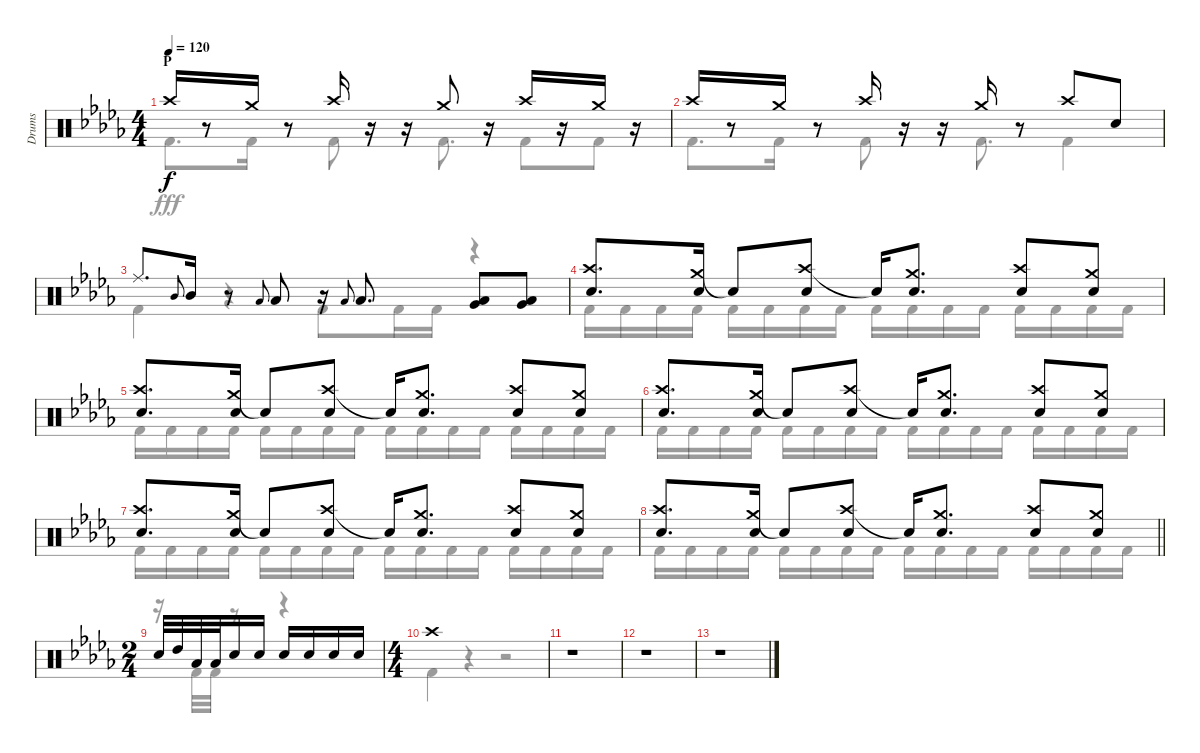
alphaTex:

\track ("Drums" "Drums") {instrument percussion}
\staff {score}
\articulation defaults
\voice
\ts (4 4)
\section ("" "P")
\tempo 120
\clef neutral
\ks db "Crash high (hit)".16{dy f}
r.8 "Crash medium (hit)".16 r.8 "Crash high (hit)".16 r.16 r.16 "Crash medium (hit)".8 r.16 "Crash high (hit)".16 r.16 "Crash medium (hit)".16 r.16 |
"Crash high (hit)".16 r.8 "Crash medium (hit)".16 r.8 "Crash high (hit)".16 r.16 r.16 "Crash medium (hit)".16 r.8 "Crash high (hit)".8 "Snare (hit) 2".8 |
"Ride (middle)".8{d} "Mid Tom (hit)".8{gr onbeat} "Mid Tom (hit)".16 r.8 "Low Tom (hit)".8{gr onbeat} "Low Tom (hit)".8 r.16 "Low Tom (hit)".8{gr onbeat} "Low Tom (hit)".8{d} ("Low Tom (hit)" "Very Low Tom (hit)").8 ("Low Tom (hit)" "Very Low Tom (hit)").8 |
("Crash high (hit)" "Snare (hit) 2").8{d} ("Crash medium (hit)" "Snare (hit) 2").16 "Snare (hit)"{t}.8 ("Crash high (hit)" "Snare (hit) 2").8 "Snare (hit)"{t}.16 ("Crash medium (hit)" "Snare (hit) 2").8{d} ("Crash high (hit)" "Snare (hit) 2").8 ("Crash medium (hit)" "Snare (hit) 2").8 |
("Crash high (hit)" "Snare (hit) 2").8{d} ("Crash medium (hit)" "Snare (hit) 2").16 "Snare (hit)"{t}.8 ("Crash high (hit)" "Snare (hit) 2").8 "Snare (hit)"{t}.16 ("Crash medium (hit)" "Snare (hit) 2").8{d} ("Crash high (hit)" "Snare (hit) 2").8 ("Crash medium (hit)" "Snare (hit) 2").8 |
("Crash high (hit)" "Snare (hit) 2").8{d} ("Crash medium (hit)" "Snare (hit) 2").16 "Snare (hit)"{t}.8 ("Crash high (hit)" "Snare (hit) 2").8 "Snare (hit)"{t}.16 ("Crash medium (hit)" "Snare (hit) 2").8{d} ("Crash high (hit)" "Snare (hit) 2").8 ("Crash medium (hit)" "Snare (hit) 2").8 |
("Crash high (hit)" "Snare (hit) 2").8{d} ("Crash medium (hit)" "Snare (hit) 2").16 "Snare (hit)"{t}.8 ("Crash high (hit)" "Snare (hit) 2").8 "Snare (hit)"{t}.16 ("Crash medium (hit)" "Snare (hit) 2").8{d} ("Crash high (hit)" "Snare (hit) 2").8 ("Crash medium (hit)" "Snare (hit) 2").8 |
\barLineRight lightlight
("Crash high (hit)" "Snare (hit) 2").8{d} ("Crash medium (hit)" "Snare (hit) 2").16 "Snare (hit)"{t}.8 ("Crash high (hit)" "Snare (hit) 2").8 "Snare (hit)"{t}.16 ("Crash medium (hit)" "Snare (hit) 2").8{d} ("Crash high (hit)" "Snare (hit) 2").8 ("Crash medium (hit)" "Snare (hit) 2").8 |
\ts (2 4)
"Snare (hit) 2".32 "High Tom (hit)".32 "Low Tom (hit)".32 "Low Tom (hit)".32 "Snare (hit) 2".16 "Snare (hit) 2".16 "Snare (hit) 2".16 "Snare (hit) 2".16 "Snare (hit) 2".16 "Snare (hit) 2".16 |
\ts (4 4)
"Crash high (hit)".1 |
r.1 |
r.1 |
r.1
\voice
\clef neutral
\ottava regular
\simile none
\ks db "Kick (hit) 2".8{d dy fff} "Kick (hit) 2".16
r.8 "Kick (hit) 2".8 r.16 "Kick (hit) 2".8{d} "Kick (hit) 2".8 "Kick (hit) 2".8 |
"Kick (hit) 2".8{d} "Kick (hit) 2".16 r.8 "Kick (hit) 2".8 r.16 "Kick (hit) 2".8{d} "Kick (hit) 2".4 |
"Kick (hit) 2".4 r.4 "Kick (hit) 2".8 "Kick (hit) 2".16 "Kick (hit) 2".16 r.4 |
"Kick (hit) 2".16 "Kick (hit) 2".16 "Kick (hit) 2".16 "Kick (hit) 2".16 "Kick (hit) 2".16 "Kick (hit) 2".16 "Kick (hit) 2".16 "Kick (hit) 2".16 "Kick (hit) 2".16 "Kick (hit) 2".16 "Kick (hit) 2".16 "Kick (hit) 2".16 "Kick (hit) 2".16 "Kick (hit) 2".16 "Kick (hit) 2".16 "Kick (hit) 2".16 |
"Kick (hit) 2".16 "Kick (hit) 2".16 "Kick (hit) 2".16 "Kick (hit) 2".16 "Kick (hit) 2".16 "Kick (hit) 2".16 "Kick (hit) 2".16 "Kick (hit) 2".16 "Kick (hit) 2".16 "Kick (hit) 2".16 "Kick (hit) 2".16 "Kick (hit) 2".16 "Kick (hit) 2".16 "Kick (hit) 2".16 "Kick (hit) 2".16 "Kick (hit) 2".16 |
"Kick (hit) 2".16 "Kick (hit) 2".16 "Kick (hit) 2".16 "Kick (hit) 2".16 "Kick (hit) 2".16 "Kick (hit) 2".16 "Kick (hit) 2".16 "Kick (hit) 2".16 "Kick (hit) 2".16 "Kick (hit) 2".16 "Kick (hit) 2".16 "Kick (hit) 2".16 "Kick (hit) 2".16 "Kick (hit) 2".16 "Kick (hit) 2".16 "Kick (hit) 2".16 |
"Kick (hit) 2".16 "Kick (hit) 2".16 "Kick (hit) 2".16 "Kick (hit) 2".16 "Kick (hit) 2".16 "Kick (hit) 2".16 "Kick (hit) 2".16 "Kick (hit) 2".16 "Kick (hit) 2".16 "Kick (hit) 2".16 "Kick (hit) 2".16 "Kick (hit) 2".16 "Kick (hit) 2".16 "Kick (hit) 2".16 "Kick (hit) 2".16 "Kick (hit) 2".16 |
\barLineRight lightlight "Kick (hit) 2".16 "Kick (hit) 2".16 "Kick (hit) 2".16 "Kick (hit) 2".16 "Kick (hit) 2".16 "Kick (hit) 2".16 "Kick (hit) 2".16 "Kick (hit) 2".16 "Kick (hit) 2".16 "Kick (hit) 2".16 "Kick (hit) 2".16 "Kick (hit) 2".16 "Kick (hit) 2".16 "Kick (hit) 2".16 "Kick (hit) 2".16 "Kick (hit) 2".16
|
r.16 "Kick (hit) 2".32 "Kick (hit) 2".32 r.8 r.4 |
"Kick (hit) 2".4 r.4 r.2 |
r.1 |
r.1 |
r.1
